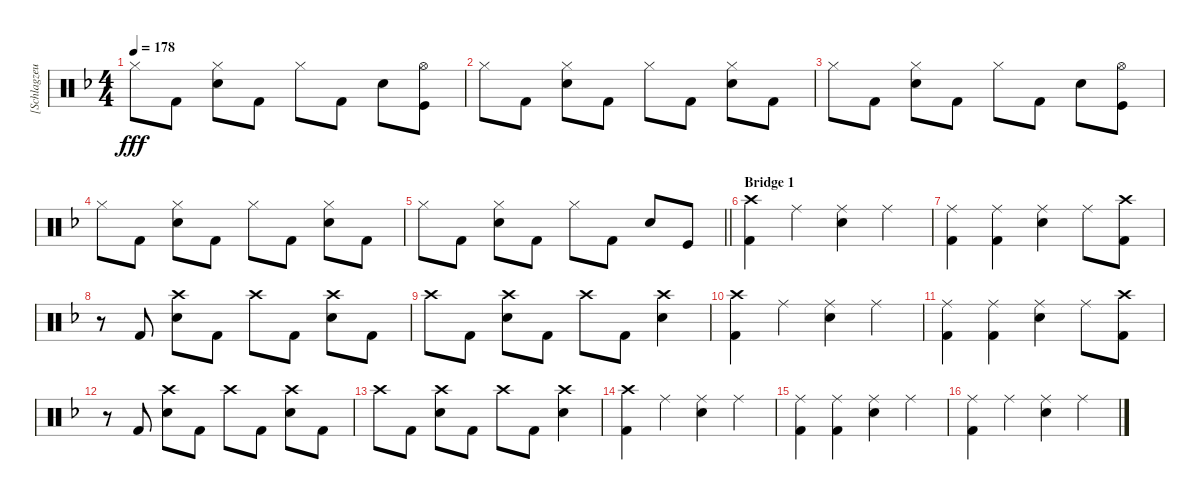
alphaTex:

\track ("[Schlagzeug]" "[Schlagzeu") {instrument percussion}
\staff {score}
\articulation defaults
\ts (4 4)
\tempo 178
\clef neutral
\ks dminor "Hi-Hat (closed)".8{dy fff} "Kick (hit) 2".8
("Hi-Hat (closed)" "Electric Snare (hit)").8 "Kick (hit) 2".8 "Hi-Hat (closed)".8 "Kick (hit) 2".8 "Electric Snare (hit)".8 ("Hi-Hat (open)" "Kick (hit)").8 |
"Hi-Hat (closed)".8 "Kick (hit) 2".8 ("Hi-Hat (closed)" "Electric Snare (hit)").8 "Kick (hit) 2".8 "Hi-Hat (closed)".8 "Kick (hit) 2".8 ("Hi-Hat (closed)" "Electric Snare (hit)").8 "Kick (hit) 2".8 |
"Hi-Hat (closed)".8 "Kick (hit) 2".8 ("Hi-Hat (closed)" "Electric Snare (hit)").8 "Kick (hit) 2".8 "Hi-Hat (closed)".8 "Kick (hit) 2".8 "Electric Snare (hit)".8 ("Hi-Hat (open)" "Kick (hit)").8 |
"Hi-Hat (closed)".8 "Kick (hit) 2".8 ("Hi-Hat (closed)" "Electric Snare (hit)").8 "Kick (hit) 2".8 "Hi-Hat (closed)".8 "Kick (hit) 2".8 ("Hi-Hat (closed)" "Electric Snare (hit)").8 "Kick (hit) 2".8 |
\barLineRight lightlight "Hi-Hat (closed)".8 "Kick (hit) 2".8
("Hi-Hat (closed)" "Electric Snare (hit)").8 "Kick (hit) 2".8 "Hi-Hat (closed)".8 "Kick (hit) 2".8 "Electric Snare (hit)".8 "Kick (hit)".8 |
\section ("" "Bridge 1")
("Crash high (hit)" "Kick (hit) 2").4 "Ride (middle)".4 ("Ride (middle)" "Electric Snare (hit)").4 "Ride (middle)".4 |
("Ride (middle)" "Kick (hit) 2").4 ("Ride (middle)" "Kick (hit) 2").4 ("Ride (middle)" "Electric Snare (hit)").4 "Ride (middle)".8 ("Crash high (hit)" "Kick (hit) 2").8 |
r.8 "Kick (hit) 2".8 ("Crash high (hit)" "Electric Snare (hit)").8 "Kick (hit) 2".8 "Crash high (hit)".8 "Kick (hit) 2".8 ("Crash high (hit)" "Electric Snare (hit)").8 "Kick (hit) 2".8 |
"Crash high (hit)".8 "Kick (hit) 2".8 ("Crash high (hit)" "Electric Snare (hit)").8 "Kick (hit) 2".8 "Crash high (hit)".8 "Kick (hit) 2".8 ("Crash high (hit)" "Electric Snare (hit)").4 |
("Crash high (hit)" "Kick (hit) 2").4 "Ride (middle)".4 ("Ride (middle)" "Electric Snare (hit)").4 "Ride (middle)".4 |
("Ride (middle)" "Kick (hit) 2").4 ("Ride (middle)" "Kick (hit) 2").4 ("Ride (middle)" "Electric Snare (hit)").4 "Ride (middle)".8 ("Crash high (hit)" "Kick (hit) 2").8 |
r.8 "Kick (hit) 2".8 ("Crash high (hit)" "Electric Snare (hit)").8 "Kick (hit) 2".8 "Crash high (hit)".8 "Kick (hit) 2".8 ("Crash high (hit)" "Electric Snare (hit)").8 "Kick (hit) 2".8 |
"Crash high (hit)".8 "Kick (hit) 2".8 ("Crash high (hit)" "Electric Snare (hit)").8 "Kick (hit) 2".8 "Crash high (hit)".8 "Kick (hit) 2".8 ("Crash high (hit)" "Electric Snare (hit)").4 |
("Crash high (hit)" "Kick (hit) 2").4 "Ride (middle)".4 ("Ride (middle)" "Electric Snare (hit)").4 "Ride (middle)".4 |
("Ride (middle)" "Kick (hit) 2").4 ("Ride (middle)" "Kick (hit) 2").4 ("Ride (middle)" "Electric Snare (hit)").4 "Ride (middle)".4 |
("Ride (middle)" "Kick (hit) 2").4 "Ride (middle)".4 ("Ride (middle)" "Electric Snare (hit)").4 "Ride (middle)".4
